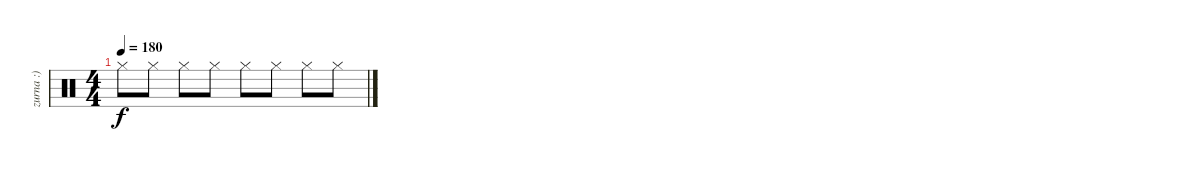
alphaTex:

\track ("zurna :)" "zurna :)") {instrument percussion}
\staff {score}
\articulation defaults
\ts (4 4)
\tempo 180
\clef neutral
\ks c "Hi-Hat (closed)".8{dy f} "Hi-Hat (closed)".8 "Hi-Hat (closed)".8 "Hi-Hat (closed)".8 "Hi-Hat (closed)".8 "Hi-Hat (closed)".8 "Hi-Hat (closed)".8 "Hi-Hat (closed)".8
